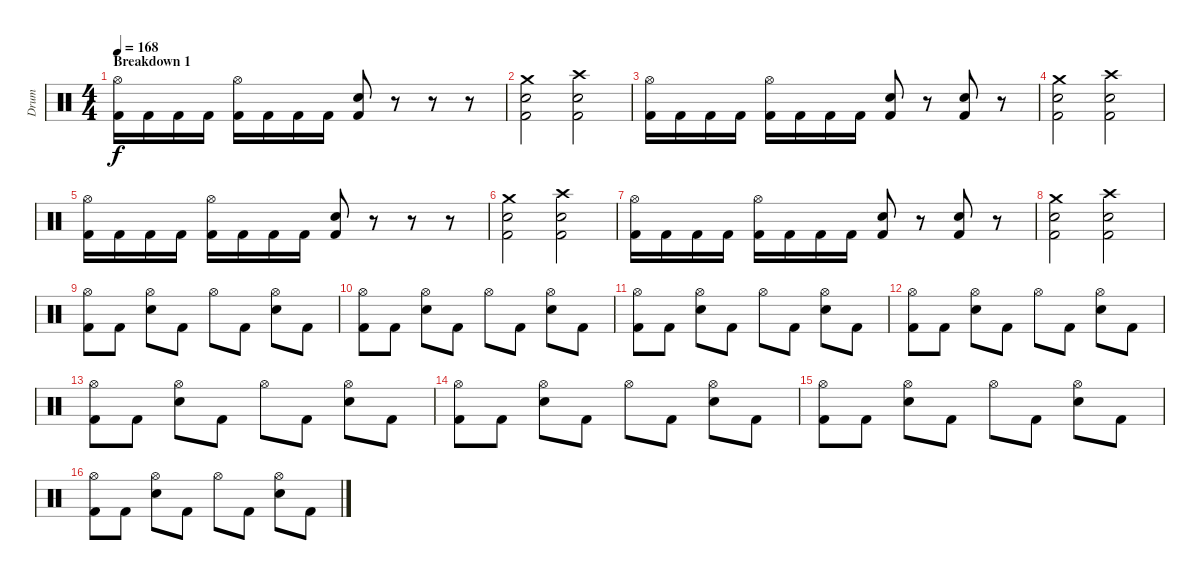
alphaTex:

\track ("Drum" "Drum") {instrument percussion}
\staff {score}
\articulation defaults
\ts (4 4)
\section ("" "Breakdown 1")
\tempo 168
\clef neutral
\ks c
("Hi-Hat (open)" "Kick (hit) 2").16{dy f} "Kick (hit) 2".16 "Kick (hit) 2".16 "Kick (hit) 2".16 ("Hi-Hat (open)" "Kick (hit) 2").16 "Kick (hit) 2".16 "Kick (hit) 2".16 "Kick (hit) 2".16 ("Electric Snare (hit)" "Kick (hit) 2").8 r.8 r.8 r.8 |
("Crash medium (hit)" "Electric Snare (hit)" "Kick (hit) 2").2 ("Crash high (hit)" "Electric Snare (hit)" "Kick (hit) 2").2 |
("Hi-Hat (open)" "Kick (hit) 2").16 "Kick (hit) 2".16 "Kick (hit) 2".16 "Kick (hit) 2".16 ("Hi-Hat (open)" "Kick (hit) 2").16 "Kick (hit) 2".16 "Kick (hit) 2".16 "Kick (hit) 2".16 ("Electric Snare (hit)" "Kick (hit) 2").8 r.8 ("Electric Snare (hit)" "Kick (hit) 2").8 r.8 |
("Crash medium (hit)" "Electric Snare (hit)" "Kick (hit) 2").2 ("Crash high (hit)" "Electric Snare (hit)" "Kick (hit) 2").2 |
("Hi-Hat (open)" "Kick (hit) 2").16 "Kick (hit) 2".16 "Kick (hit) 2".16 "Kick (hit) 2".16 ("Hi-Hat (open)" "Kick (hit) 2").16 "Kick (hit) 2".16 "Kick (hit) 2".16 "Kick (hit) 2".16 ("Electric Snare (hit)" "Kick (hit) 2").8 r.8 r.8 r.8 |
("Crash medium (hit)" "Electric Snare (hit)" "Kick (hit) 2").2 ("Crash high (hit)" "Electric Snare (hit)" "Kick (hit) 2").2 |
("Hi-Hat (open)" "Kick (hit) 2").16 "Kick (hit) 2".16 "Kick (hit) 2".16 "Kick (hit) 2".16 ("Hi-Hat (open)" "Kick (hit) 2").16 "Kick (hit) 2".16 "Kick (hit) 2".16 "Kick (hit) 2".16 ("Electric Snare (hit)" "Kick (hit) 2").8 r.8 ("Electric Snare (hit)" "Kick (hit) 2").8 r.8 |
("Crash medium (hit)" "Electric Snare (hit)" "Kick (hit) 2").2 ("Crash high (hit)" "Electric Snare (hit)" "Kick (hit) 2").2 |
("Hi-Hat (open)" "Kick (hit) 2").8 "Kick (hit) 2".8 ("Hi-Hat (open)" "Electric Snare (hit)").8 "Kick (hit) 2".8 "Hi-Hat (open)".8 "Kick (hit) 2".8 ("Hi-Hat (open)" "Electric Snare (hit)").8 "Kick (hit) 2".8 |
("Hi-Hat (open)" "Kick (hit) 2").8 "Kick (hit) 2".8 ("Hi-Hat (open)" "Electric Snare (hit)").8 "Kick (hit) 2".8 "Hi-Hat (open)".8 "Kick (hit) 2".8 ("Hi-Hat (open)" "Electric Snare (hit)").8 "Kick (hit) 2".8 |
("Hi-Hat (open)" "Kick (hit) 2").8 "Kick (hit) 2".8 ("Hi-Hat (open)" "Electric Snare (hit)").8 "Kick (hit) 2".8 "Hi-Hat (open)".8 "Kick (hit) 2".8 ("Hi-Hat (open)" "Electric Snare (hit)").8 "Kick (hit) 2".8 |
("Hi-Hat (open)" "Kick (hit) 2").8 "Kick (hit) 2".8 ("Hi-Hat (open)" "Electric Snare (hit)").8 "Kick (hit) 2".8 "Hi-Hat (open)".8 "Kick (hit) 2".8 ("Hi-Hat (open)" "Electric Snare (hit)").8 "Kick (hit) 2".8 |
("Hi-Hat (open)" "Kick (hit) 2").8 "Kick (hit) 2".8 ("Hi-Hat (open)" "Electric Snare (hit)").8 "Kick (hit) 2".8 "Hi-Hat (open)".8 "Kick (hit) 2".8 ("Hi-Hat (open)" "Electric Snare (hit)").8 "Kick (hit) 2".8 |
("Hi-Hat (open)" "Kick (hit) 2").8 "Kick (hit) 2".8 ("Hi-Hat (open)" "Electric Snare (hit)").8 "Kick (hit) 2".8 "Hi-Hat (open)".8 "Kick (hit) 2".8 ("Hi-Hat (open)" "Electric Snare (hit)").8 "Kick (hit) 2".8 |
("Hi-Hat (open)" "Kick (hit) 2").8 "Kick (hit) 2".8 ("Hi-Hat (open)" "Electric Snare (hit)").8 "Kick (hit) 2".8 "Hi-Hat (open)".8 "Kick (hit) 2".8 ("Hi-Hat (open)" "Electric Snare (hit)").8 "Kick (hit) 2".8 |
("Hi-Hat (open)" "Kick (hit) 2").8 "Kick (hit) 2".8 ("Hi-Hat (open)" "Electric Snare (hit)").8 "Kick (hit) 2".8 "Hi-Hat (open)".8 "Kick (hit) 2".8 ("Hi-Hat (open)" "Electric Snare (hit)").8 "Kick (hit) 2".8
